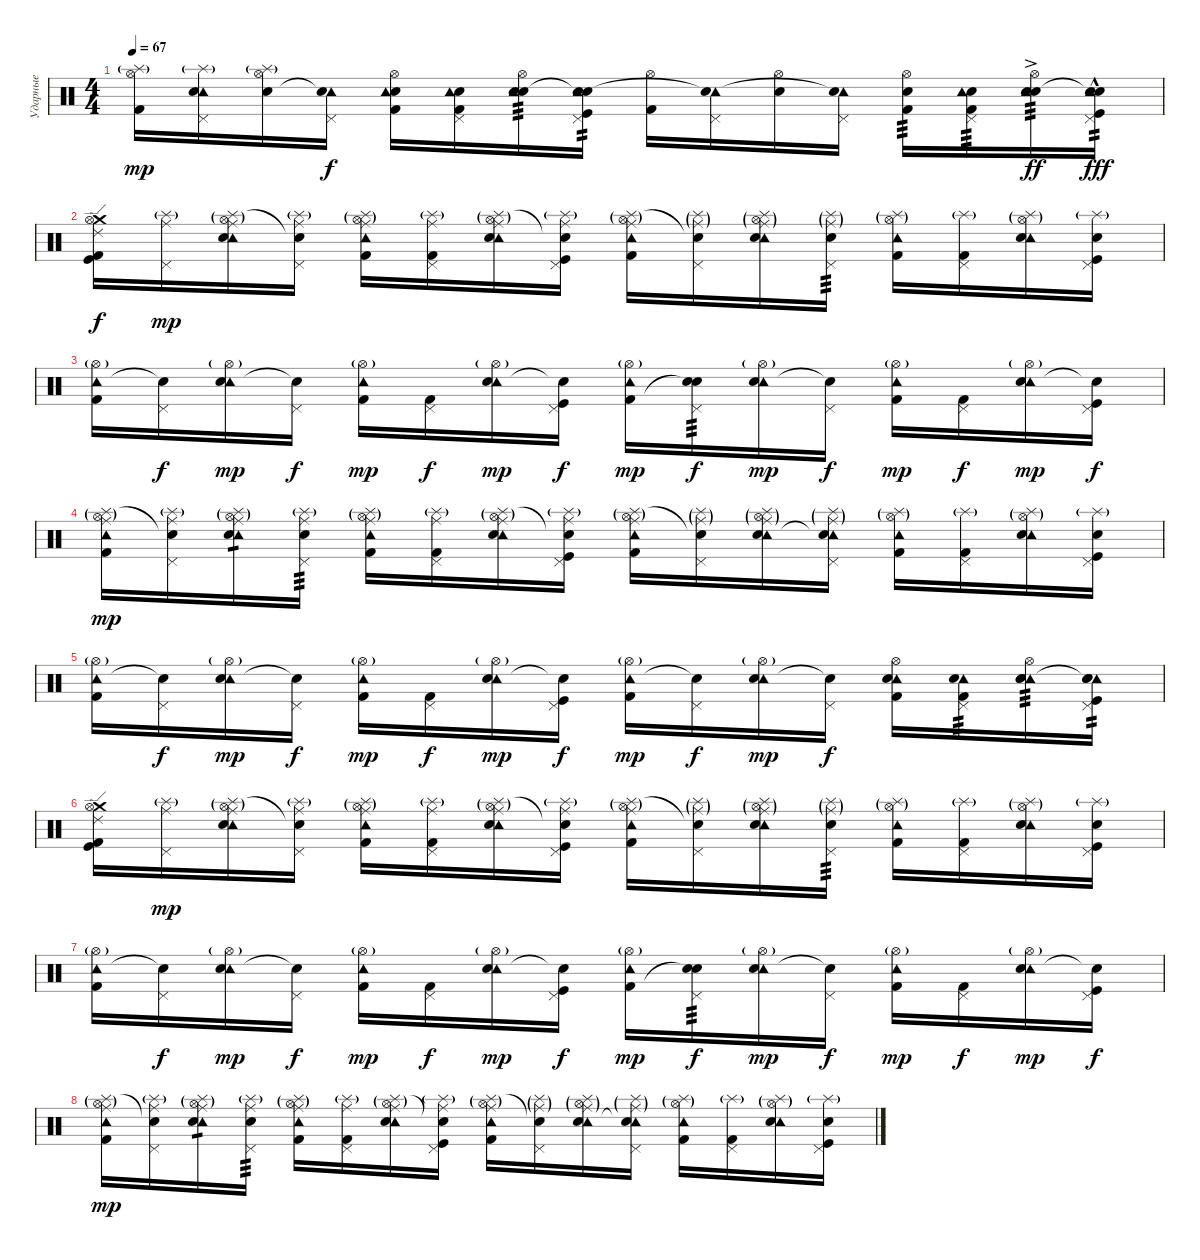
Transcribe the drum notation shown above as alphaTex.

\track ("Ударные" "Ударные") {instrument percussion}
\staff {score}
\articulation defaults
\ts (4 4)
\tempo 67
\clef neutral
\ks c
("Hi-Hat (open)" "Splash (hit)"{g} "Kick (hit) 2").16{dy mp} ("Pedal Hi-Hat (hit)" "Tambourine (hit)" "Splash (hit)"{g} "Snare (hit)"{t}).16 ("Hi-Hat (open)" "Splash (hit)"{g} "Snare (hit) 2").16 ("Pedal Hi-Hat (hit)" "Tambourine (hit)" "Snare (hit) 2"{t}).16{dy f} ("Hi-Hat (open)" "Snare (hit) 2" "Tambourine (hit)" "Kick (hit) 2").16 ("Pedal Hi-Hat (hit)" "Snare (hit) 2" "Tambourine (hit)" "Kick (hit) 2").16 ("Hi-Hat (open)" "Snare (hit) 2" "Tambourine (hit)" "Snare (hit) 2").16{tp 3} ("Pedal Hi-Hat (hit)" "Snare (hit) 2" "Tambourine (hit)" "Snare (hit) 2"{t} "Kick (hit)").16{tp 2} ("Hi-Hat (open)" "Kick (hit) 2").16 ("Pedal Hi-Hat (hit)" "Tambourine (hit)" "Snare (hit)"{t}).16 ("Hi-Hat (open)" "Snare (hit) 2").16 ("Pedal Hi-Hat (hit)" "Tambourine (hit)" "Snare (hit) 2"{t}).16 ("Hi-Hat (open)" "Electric Snare (hit)" "Kick (hit) 2").16{tp 3} ("Pedal Hi-Hat (hit)" "Electric Snare (hit)" "Tambourine (hit)" "Kick (hit) 2").16{tp 3} ("Hi-Hat (open)" "Electric Snare (hit)"{ac} "Tambourine (hit)" "Snare (hit) 2").16{tp 3 dy ff} ("Pedal Hi-Hat (hit)" "Electric Snare (hit)"{hac} "Tambourine (hit)" "Snare (hit) 2"{t} "Kick (hit)").16{tp 2 dy fff} |
("Crash medium (hit)" "Kick (hit) 2" "Kick (hit)" "Ride (edge) 2" "Hi-Hat (open)").16{dy f} ("Pedal Hi-Hat (hit)" "Ride (middle)" "Splash (hit)"{g}).16{dy mp} ("Hi-Hat (open)"{g} "Tambourine (hit)" "Ride (middle)" "Splash (hit)"{g} "Snare (hit) 2").16 ("Pedal Hi-Hat (hit)" "Ride (middle)" "Splash (hit)"{g} "Snare (hit) 2"{t}).16 ("Hi-Hat (open)"{g} "Tambourine (hit)" "Ride (middle)" "Splash (hit)"{g} "Kick (hit) 2").16 ("Pedal Hi-Hat (hit)" "Ride (middle)" "Splash (hit)"{g} "Kick (hit) 2").16 ("Hi-Hat (open)"{g} "Tambourine (hit)" "Ride (middle)" "Splash (hit)"{g} "Snare (hit) 2").16 ("Pedal Hi-Hat (hit)" "Ride (middle)" "Splash (hit)"{g} "Snare (hit) 2"{t} "Kick (hit)").16 ("Hi-Hat (open)"{g} "Tambourine (hit)" "Ride (middle)" "Splash (hit)"{g} "Kick (hit) 2").16 ("Pedal Hi-Hat (hit)" "Ride (middle)"{g} "Splash (hit)"{g} "Snare (hit)"{t}).16 ("Hi-Hat (open)"{g} "Tambourine (hit)" "Ride (middle)"{g} "Splash (hit)"{g} "Snare (hit) 2").16 ("Pedal Hi-Hat (hit)" "Ride (middle)"{g} "Splash (hit)"{g} "Snare (hit) 2").16{tp 3} ("Hi-Hat (open)"{g} "Tambourine (hit)" "Splash (hit)"{g} "Kick (hit) 2").16 ("Pedal Hi-Hat (hit)" "Splash (hit)"{g} "Kick (hit) 2").16 ("Hi-Hat (open)"{g} "Tambourine (hit)" "Splash (hit)"{g} "Snare (hit) 2").16 ("Pedal Hi-Hat (hit)" "Splash (hit)"{g} "Snare (hit) 2" "Kick (hit)").16 |
("Hi-Hat (open)"{g} "Tambourine (hit)" "Kick (hit) 2").16 ("Pedal Hi-Hat (hit)" "Snare (hit)"{t}).16{dy f} ("Hi-Hat (open)"{g} "Tambourine (hit)" "Snare (hit) 2").16{dy mp} ("Pedal Hi-Hat (hit)" "Snare (hit) 2"{t}).16{dy f} ("Hi-Hat (open)"{g} "Tambourine (hit)" "Kick (hit) 2").16{dy mp} ("Pedal Hi-Hat (hit)" "Kick (hit) 2").16{dy f} ("Hi-Hat (open)"{g} "Tambourine (hit)" "Snare (hit) 2").16{dy mp} ("Pedal Hi-Hat (hit)" "Snare (hit) 2"{t} "Kick (hit)").16{dy f} ("Hi-Hat (open)"{g} "Tambourine (hit)" "Kick (hit) 2").16{dy mp} ("Pedal Hi-Hat (hit)" "Snare (hit) 2" "Snare (hit)"{t}).16{tp 3 dy f} ("Hi-Hat (open)"{g} "Tambourine (hit)" "Snare (hit) 2").16{dy mp} ("Pedal Hi-Hat (hit)" "Snare (hit) 2"{t}).16{dy f} ("Hi-Hat (open)"{g} "Tambourine (hit)" "Kick (hit) 2").16{dy mp} ("Pedal Hi-Hat (hit)" "Kick (hit) 2").16{dy f} ("Hi-Hat (open)"{g} "Tambourine (hit)" "Snare (hit) 2").16{dy mp} ("Pedal Hi-Hat (hit)" "Snare (hit) 2"{t} "Kick (hit)").16{dy f} |
("Hi-Hat (open)"{g} "Tambourine (hit)" "Ride (middle)" "Splash (hit)"{g} "Kick (hit) 2").16{dy mp} ("Pedal Hi-Hat (hit)" "Ride (middle)" "Splash (hit)"{g} "Snare (hit)"{t}).16 ("Hi-Hat (open)"{g} "Tambourine (hit)" "Ride (middle)" "Splash (hit)"{g} "Snare (hit) 2").16{tp 1} ("Pedal Hi-Hat (hit)" "Ride (middle)" "Splash (hit)"{g} "Snare (hit) 2").16{tp 3} ("Hi-Hat (open)"{g} "Tambourine (hit)" "Ride (middle)" "Splash (hit)"{g} "Kick (hit) 2").16 ("Pedal Hi-Hat (hit)" "Ride (middle)" "Splash (hit)"{g} "Kick (hit) 2").16 ("Hi-Hat (open)"{g} "Tambourine (hit)" "Ride (middle)" "Splash (hit)"{g} "Snare (hit) 2").16 ("Pedal Hi-Hat (hit)" "Ride (middle)" "Splash (hit)"{g} "Snare (hit) 2"{t} "Kick (hit)").16 ("Hi-Hat (open)"{g} "Tambourine (hit)" "Ride (middle)" "Splash (hit)"{g} "Kick (hit) 2").16 ("Pedal Hi-Hat (hit)" "Ride (middle)"{g} "Splash (hit)"{g} "Snare (hit)"{t}).16 ("Hi-Hat (open)"{g} "Tambourine (hit)" "Ride (middle)"{g} "Splash (hit)"{g} "Snare (hit) 2").16 ("Pedal Hi-Hat (hit)" "Tambourine (hit)" "Ride (middle)"{g} "Splash (hit)"{g} "Snare (hit) 2"{t}).16 ("Hi-Hat (open)"{g} "Tambourine (hit)" "Splash (hit)"{g} "Kick (hit) 2").16 ("Pedal Hi-Hat (hit)" "Splash (hit)"{g} "Kick (hit) 2").16 ("Hi-Hat (open)"{g} "Tambourine (hit)" "Splash (hit)"{g} "Electric Snare (hit)").16 ("Pedal Hi-Hat (hit)" "Splash (hit)"{g} "Electric Snare (hit)" "Kick (hit)").16 |
("Hi-Hat (open)"{g} "Tambourine (hit)" "Kick (hit) 2").16 ("Pedal Hi-Hat (hit)" "Snare (hit)"{t}).16{dy f} ("Hi-Hat (open)"{g} "Tambourine (hit)" "Snare (hit) 2").16{dy mp} ("Pedal Hi-Hat (hit)" "Snare (hit) 2"{t}).16{dy f} ("Hi-Hat (open)"{g} "Tambourine (hit)" "Kick (hit) 2").16{dy mp} ("Pedal Hi-Hat (hit)" "Kick (hit) 2").16{dy f} ("Hi-Hat (open)"{g} "Tambourine (hit)" "Electric Snare (hit)").16{dy mp} ("Pedal Hi-Hat (hit)" "Snare (hit) 2"{t} "Kick (hit)").16{dy f} ("Hi-Hat (open)"{g} "Tambourine (hit)" "Kick (hit) 2").16{dy mp} ("Pedal Hi-Hat (hit)" "Snare (hit)"{t}).16{dy f} ("Hi-Hat (open)"{g} "Tambourine (hit)" "Snare (hit) 2").16{dy mp} ("Pedal Hi-Hat (hit)" "Snare (hit) 2"{t}).16{dy f} ("Hi-Hat (open)" "Tambourine (hit)" "Snare (hit) 2" "Kick (hit) 2").16 ("Pedal Hi-Hat (hit)" "Tambourine (hit)" "Snare (hit) 2" "Kick (hit) 2").16{tp 3} ("Hi-Hat (open)" "Tambourine (hit)" "Snare (hit) 2" "Snare (hit) 2").16{tp 3} ("Pedal Hi-Hat (hit)" "Tambourine (hit)" "Snare (hit) 2" "Snare (hit) 2"{t} "Kick (hit)").16{tp 2} |
("Crash medium (hit)" "Kick (hit) 2" "Kick (hit)" "Ride (edge) 2" "Hi-Hat (open)").16 ("Pedal Hi-Hat (hit)" "Ride (middle)" "Splash (hit)"{g}).16{dy mp} ("Hi-Hat (open)"{g} "Tambourine (hit)" "Ride (middle)" "Splash (hit)"{g} "Snare (hit) 2").16 ("Pedal Hi-Hat (hit)" "Ride (middle)" "Splash (hit)"{g} "Snare (hit) 2"{t}).16 ("Hi-Hat (open)"{g} "Tambourine (hit)" "Ride (middle)" "Splash (hit)"{g} "Kick (hit) 2").16 ("Pedal Hi-Hat (hit)" "Ride (middle)" "Splash (hit)"{g} "Kick (hit) 2").16 ("Hi-Hat (open)"{g} "Tambourine (hit)" "Ride (middle)" "Splash (hit)"{g} "Snare (hit) 2").16 ("Pedal Hi-Hat (hit)" "Ride (middle)" "Splash (hit)"{g} "Snare (hit) 2"{t} "Kick (hit)").16 ("Hi-Hat (open)"{g} "Tambourine (hit)" "Ride (middle)" "Splash (hit)"{g} "Kick (hit) 2").16 ("Pedal Hi-Hat (hit)" "Ride (middle)"{g} "Splash (hit)"{g} "Snare (hit)"{t}).16 ("Hi-Hat (open)"{g} "Tambourine (hit)" "Ride (middle)"{g} "Splash (hit)"{g} "Snare (hit) 2").16 ("Pedal Hi-Hat (hit)" "Ride (middle)"{g} "Splash (hit)"{g} "Snare (hit) 2").16{tp 3} ("Hi-Hat (open)"{g} "Tambourine (hit)" "Splash (hit)"{g} "Kick (hit) 2").16 ("Pedal Hi-Hat (hit)" "Splash (hit)"{g} "Kick (hit) 2").16 ("Hi-Hat (open)"{g} "Tambourine (hit)" "Splash (hit)"{g} "Snare (hit) 2").16 ("Pedal Hi-Hat (hit)" "Splash (hit)"{g} "Snare (hit) 2" "Kick (hit)").16 |
("Hi-Hat (open)"{g} "Tambourine (hit)" "Kick (hit) 2").16 ("Pedal Hi-Hat (hit)" "Snare (hit)"{t}).16{dy f} ("Hi-Hat (open)"{g} "Tambourine (hit)" "Snare (hit) 2").16{dy mp} ("Pedal Hi-Hat (hit)" "Snare (hit) 2"{t}).16{dy f} ("Hi-Hat (open)"{g} "Tambourine (hit)" "Kick (hit) 2").16{dy mp} ("Pedal Hi-Hat (hit)" "Kick (hit) 2").16{dy f} ("Hi-Hat (open)"{g} "Tambourine (hit)" "Snare (hit) 2").16{dy mp} ("Pedal Hi-Hat (hit)" "Snare (hit) 2"{t} "Kick (hit)").16{dy f} ("Hi-Hat (open)"{g} "Tambourine (hit)" "Kick (hit) 2").16{dy mp} ("Pedal Hi-Hat (hit)" "Snare (hit) 2" "Snare (hit)"{t}).16{tp 3 dy f} ("Hi-Hat (open)"{g} "Tambourine (hit)" "Snare (hit) 2").16{dy mp} ("Pedal Hi-Hat (hit)" "Snare (hit) 2"{t}).16{dy f} ("Hi-Hat (open)"{g} "Tambourine (hit)" "Kick (hit) 2").16{dy mp} ("Pedal Hi-Hat (hit)" "Kick (hit) 2").16{dy f} ("Hi-Hat (open)"{g} "Tambourine (hit)" "Snare (hit) 2").16{dy mp} ("Pedal Hi-Hat (hit)" "Snare (hit) 2"{t} "Kick (hit)").16{dy f} |
("Hi-Hat (open)"{g} "Tambourine (hit)" "Ride (middle)" "Splash (hit)"{g} "Kick (hit) 2").16{dy mp} ("Pedal Hi-Hat (hit)" "Ride (middle)" "Splash (hit)"{g} "Snare (hit)"{t}).16 ("Hi-Hat (open)"{g} "Tambourine (hit)" "Ride (middle)" "Splash (hit)"{g} "Snare (hit) 2").16{tp 1} ("Pedal Hi-Hat (hit)" "Ride (middle)" "Splash (hit)"{g} "Snare (hit) 2").16{tp 3} ("Hi-Hat (open)"{g} "Tambourine (hit)" "Ride (middle)" "Splash (hit)"{g} "Kick (hit) 2").16 ("Pedal Hi-Hat (hit)" "Ride (middle)" "Splash (hit)"{g} "Kick (hit) 2").16 ("Hi-Hat (open)"{g} "Tambourine (hit)" "Ride (middle)" "Splash (hit)"{g} "Snare (hit) 2").16 ("Pedal Hi-Hat (hit)" "Ride (middle)" "Splash (hit)"{g} "Snare (hit) 2"{t} "Kick (hit)").16 ("Hi-Hat (open)"{g} "Tambourine (hit)" "Ride (middle)" "Splash (hit)"{g} "Kick (hit) 2").16 ("Pedal Hi-Hat (hit)" "Ride (middle)"{g} "Splash (hit)"{g} "Snare (hit)"{t}).16 ("Hi-Hat (open)"{g} "Tambourine (hit)" "Ride (middle)"{g} "Splash (hit)"{g} "Snare (hit) 2").16 ("Pedal Hi-Hat (hit)" "Tambourine (hit)" "Ride (middle)"{g} "Splash (hit)"{g} "Snare (hit) 2"{t}).16 ("Hi-Hat (open)"{g} "Tambourine (hit)" "Splash (hit)"{g} "Kick (hit) 2").16 ("Pedal Hi-Hat (hit)" "Splash (hit)"{g} "Kick (hit) 2").16 ("Hi-Hat (open)"{g} "Tambourine (hit)" "Splash (hit)"{g} "Electric Snare (hit)").16 ("Pedal Hi-Hat (hit)" "Splash (hit)"{g} "Electric Snare (hit)" "Kick (hit)").16
